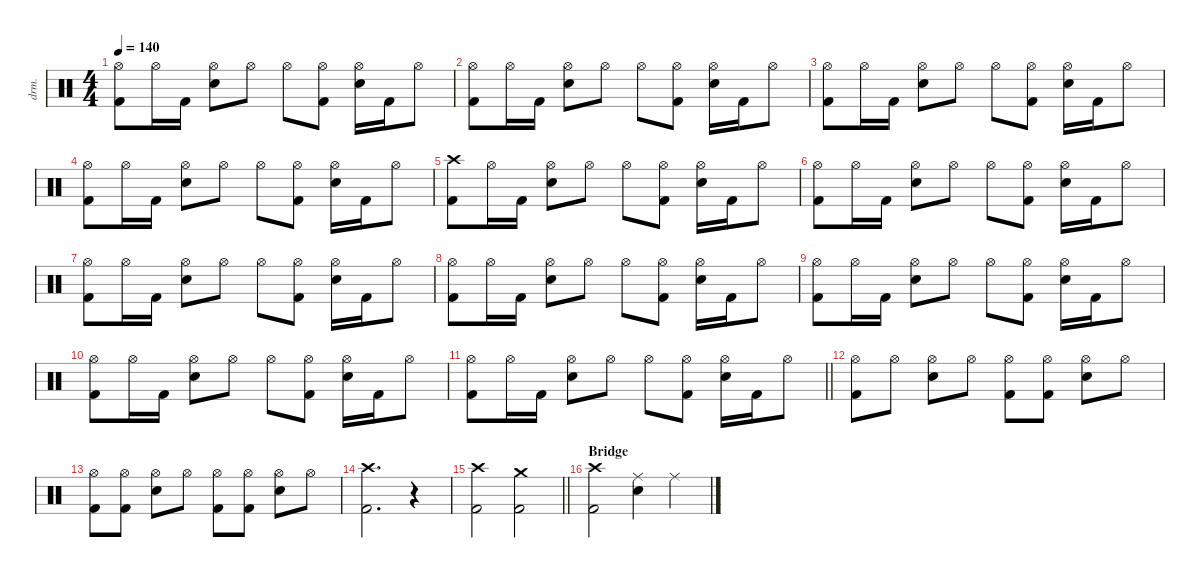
\defaultSystemsLayout 4
\hideDynamics
\bracketExtendMode nobrackets
\otherSystemsTrackNameOrientation horizontal
\track ("Drums" "drm.") {defaultSystemsLayout 4 instrument percussion}
\staff {score}
\articulation defaults
\ts (4 4)
\tempo 140
\clef neutral
\ks c
("Hi-Hat (open)" "Kick (hit) 2").8{dy mf beam Down} "Hi-Hat (open)".16{beam Down} "Kick (hit) 2".16{dy f beam Down} ("Hi-Hat (open)" "Snare (hit) 2").8{dy mf beam Down} "Hi-Hat (open)".8{beam Down} "Hi-Hat (open)".8{beam Down} ("Hi-Hat (open)" "Kick (hit) 2").8{beam Down} ("Hi-Hat (open)" "Snare (hit) 2").16{beam Down} "Kick (hit) 2".16{dy f beam Down} "Hi-Hat (open)".8{dy mf beam Down} |
("Hi-Hat (open)" "Kick (hit) 2").8{beam Down} "Hi-Hat (open)".16{beam Down} "Kick (hit) 2".16{dy f beam Down} ("Hi-Hat (open)" "Snare (hit) 2").8{dy mf beam Down} "Hi-Hat (open)".8{beam Down} "Hi-Hat (open)".8{beam Down} ("Hi-Hat (open)" "Kick (hit) 2").8{beam Down} ("Hi-Hat (open)" "Snare (hit) 2").16{beam Down} "Kick (hit) 2".16{dy f beam Down} "Hi-Hat (open)".8{dy mf beam Down} |
("Hi-Hat (open)" "Kick (hit) 2").8{beam Down} "Hi-Hat (open)".16{beam Down} "Kick (hit) 2".16{dy f beam Down} ("Hi-Hat (open)" "Snare (hit) 2").8{dy mf beam Down} "Hi-Hat (open)".8{beam Down} "Hi-Hat (open)".8{beam Down} ("Hi-Hat (open)" "Kick (hit) 2").8{beam Down} ("Hi-Hat (open)" "Snare (hit) 2").16{beam Down} "Kick (hit) 2".16{dy f beam Down} "Hi-Hat (open)".8{dy mf beam Down} |
("Hi-Hat (open)" "Kick (hit) 2").8{beam Down} "Hi-Hat (open)".16{beam Down} "Kick (hit) 2".16{dy f beam Down} ("Hi-Hat (open)" "Snare (hit) 2").8{dy mf beam Down} "Hi-Hat (open)".8{beam Down} "Hi-Hat (open)".8{beam Down} ("Hi-Hat (open)" "Kick (hit) 2").8{beam Down} ("Hi-Hat (open)" "Snare (hit) 2").16{beam Down} "Kick (hit) 2".16{dy f beam Down} "Hi-Hat (open)".8{dy mf beam Down} |
("Crash high (hit)" "Kick (hit) 2").8{dy f beam Down} "Hi-Hat (open)".16{dy mf beam Down} "Kick (hit) 2".16{dy f beam Down} ("Hi-Hat (open)" "Snare (hit) 2").8{dy mf beam Down} "Hi-Hat (open)".8{beam Down} "Hi-Hat (open)".8{beam Down} ("Hi-Hat (open)" "Kick (hit) 2").8{beam Down} ("Hi-Hat (open)" "Snare (hit) 2").16{beam Down} "Kick (hit) 2".16{dy f beam Down} "Hi-Hat (open)".8{dy mf beam Down} |
("Hi-Hat (open)" "Kick (hit) 2").8{beam Down} "Hi-Hat (open)".16{beam Down} "Kick (hit) 2".16{dy f beam Down} ("Hi-Hat (open)" "Snare (hit) 2").8{dy mf beam Down} "Hi-Hat (open)".8{beam Down} "Hi-Hat (open)".8{beam Down} ("Hi-Hat (open)" "Kick (hit) 2").8{beam Down} ("Hi-Hat (open)" "Snare (hit) 2").16{beam Down} "Kick (hit) 2".16{dy f beam Down} "Hi-Hat (open)".8{dy mf beam Down} |
("Hi-Hat (open)" "Kick (hit) 2").8{beam Down} "Hi-Hat (open)".16{beam Down} "Kick (hit) 2".16{dy f beam Down} ("Hi-Hat (open)" "Snare (hit) 2").8{dy mf beam Down} "Hi-Hat (open)".8{beam Down} "Hi-Hat (open)".8{beam Down} ("Hi-Hat (open)" "Kick (hit) 2").8{beam Down} ("Hi-Hat (open)" "Snare (hit) 2").16{beam Down} "Kick (hit) 2".16{dy f beam Down} "Hi-Hat (open)".8{dy mf beam Down} |
("Hi-Hat (open)" "Kick (hit) 2").8{beam Down} "Hi-Hat (open)".16{beam Down} "Kick (hit) 2".16{dy f beam Down} ("Hi-Hat (open)" "Snare (hit) 2").8{dy mf beam Down} "Hi-Hat (open)".8{beam Down} "Hi-Hat (open)".8{beam Down} ("Hi-Hat (open)" "Kick (hit) 2").8{beam Down} ("Hi-Hat (open)" "Snare (hit) 2").16{beam Down} "Kick (hit) 2".16{dy f beam Down} "Hi-Hat (open)".8{dy mf beam Down} |
("Hi-Hat (open)" "Kick (hit) 2").8{beam Down} "Hi-Hat (open)".16{beam Down} "Kick (hit) 2".16{dy f beam Down} ("Hi-Hat (open)" "Snare (hit) 2").8{dy mf beam Down} "Hi-Hat (open)".8{beam Down} "Hi-Hat (open)".8{beam Down} ("Hi-Hat (open)" "Kick (hit) 2").8{beam Down} ("Hi-Hat (open)" "Snare (hit) 2").16{beam Down} "Kick (hit) 2".16{dy f beam Down} "Hi-Hat (open)".8{dy mf beam Down} |
("Hi-Hat (open)" "Kick (hit) 2").8{beam Down} "Hi-Hat (open)".16{beam Down} "Kick (hit) 2".16{dy f beam Down} ("Hi-Hat (open)" "Snare (hit) 2").8{dy mf beam Down} "Hi-Hat (open)".8{beam Down} "Hi-Hat (open)".8{beam Down} ("Hi-Hat (open)" "Kick (hit) 2").8{beam Down} ("Hi-Hat (open)" "Snare (hit) 2").16{beam Down} "Kick (hit) 2".16{dy f beam Down} "Hi-Hat (open)".8{dy mf beam Down} |
\barLineRight lightlight
("Hi-Hat (open)" "Kick (hit) 2").8{beam Down} "Hi-Hat (open)".16{beam Down} "Kick (hit) 2".16{dy f beam Down} ("Hi-Hat (open)" "Snare (hit) 2").8{dy mf beam Down} "Hi-Hat (open)".8{beam Down} "Hi-Hat (open)".8{beam Down} ("Hi-Hat (open)" "Kick (hit) 2").8{beam Down} ("Hi-Hat (open)" "Snare (hit) 2").16{beam Down} "Kick (hit) 2".16{dy f beam Down} "Hi-Hat (open)".8{dy mf beam Down} |
("Hi-Hat (open)" "Kick (hit) 2").8{beam Down} "Hi-Hat (open)".8{beam Down} ("Hi-Hat (open)" "Snare (hit) 2").8{beam Down} "Hi-Hat (open)".8{beam Down} ("Hi-Hat (open)" "Kick (hit) 2").8{beam Down} ("Hi-Hat (open)" "Kick (hit) 2").8{beam Down} ("Hi-Hat (open)" "Snare (hit) 2").8{beam Down} "Hi-Hat (open)".8{beam Down} |
("Hi-Hat (open)" "Kick (hit) 2").8{beam Down} ("Hi-Hat (open)" "Kick (hit) 2").8{beam Down} ("Hi-Hat (open)" "Snare (hit) 2").8{beam Down} "Hi-Hat (open)".8{beam Down} ("Hi-Hat (open)" "Kick (hit) 2").8{beam Down} ("Hi-Hat (open)" "Kick (hit) 2").8{beam Down} ("Hi-Hat (open)" "Snare (hit) 2").8{beam Down} "Hi-Hat (open)".8{beam Down} |
("Crash high (hit)" "Kick (hit) 2").2{d dy f beam Down} r.4{beam Down} |
\barLineRight lightlight
("Crash high (hit)" "Kick (hit) 2").2{beam Down} ("Crash medium (hit)" "Kick (hit) 2").2{beam Down} |
\section ("" "Bridge")
("Crash high (hit)" "Kick (hit) 2").2{beam Down} ("Ride (middle)" "Snare (hit) 2").4{beam Down} "Ride (middle)".4{beam Down}
